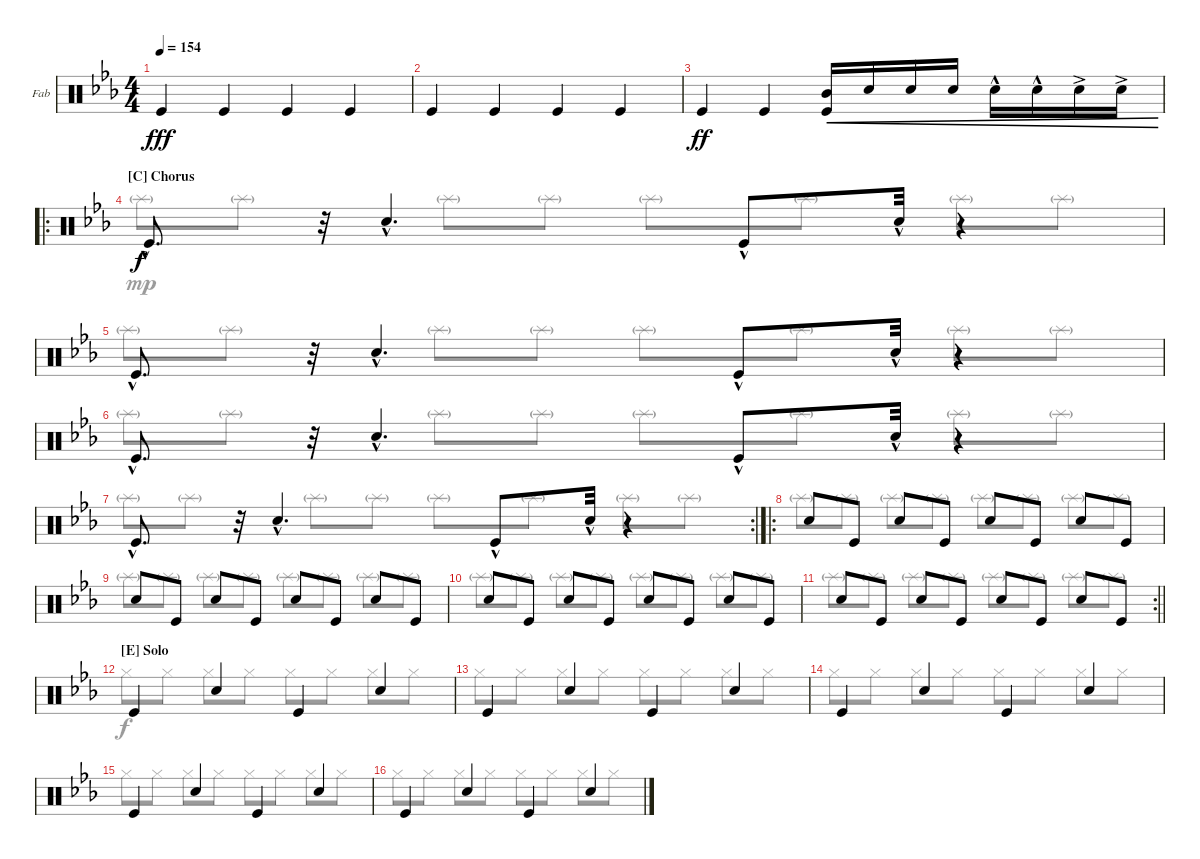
\defaultSystemsLayout 4
\bracketExtendMode groupsimilarinstruments
\firstSystemTrackNameOrientation horizontal
\otherSystemsTrackNameOrientation horizontal
\track ("Drums" "Fab") {instrument percussion}
\staff {score}
\articulation defaults
\voice
\ts (4 4)
\tempo 154
\clef neutral
\scale
0.467994
\ks eb "Kick (hit)".4{dy fff} "Kick (hit)".4 "Kick (hit)".4 "Kick (hit)".4
|
\scale
0.530682 "Kick (hit)".4 "Kick (hit)".4 "Kick (hit)".4 "Kick (hit)".4 |
\scale
0.469357 "Kick (hit)".4{dy ff} "Kick (hit)".4 ("Kick (hit)" "Mid Tom (hit)").16{cre} "Snare (hit) 2".16{cre} "Snare (hit) 2".16{cre} "Snare (hit) 2".16{cre} "Snare (hit) 2"{hac}.16{cre} "Snare (hit) 2"{hac}.16{cre} "Snare (hit) 2"{ac}.16{cre} "Snare (hit) 2"{ac}.16{cre} |
\ro
\section ("C" "Chorus")
"Kick (hit)"{hac}.8{d dy f} r.32 "Snare (hit) 2"{hac}.4{d} "Kick (hit)"{hac}.8 "Snare (hit) 2"{hac}.32 r.4 |
"Kick (hit)"{hac}.8{d} r.32 "Snare (hit) 2"{hac}.4{d} "Kick (hit)"{hac}.8 "Snare (hit) 2"{hac}.32 r.4 |
\scale
0.523051 "Kick (hit)"{hac}.8{d} r.32 "Snare (hit) 2"{hac}.4{d} "Kick (hit)"{hac}.8 "Snare (hit) 2"{hac}.32 r.4 |
\rc 2
\scale
0.47698 "Kick (hit)"{hac}.8{d} r.32 "Snare (hit) 2"{hac}.4{d} "Kick (hit)"{hac}.8 "Snare (hit) 2"{hac}.32 r.4 |
\ro "Snare (hit) 2".8 "Kick (hit)".8 "Snare (hit) 2".8 "Kick (hit)".8 "Snare (hit) 2".8 "Kick (hit)".8 "Snare (hit) 2".8 "Kick (hit)".8
|
"Snare (hit) 2".8 "Kick (hit)".8 "Snare (hit) 2".8 "Kick (hit)".8 "Snare (hit) 2".8 "Kick (hit)".8 "Snare (hit) 2".8 "Kick (hit)".8 |
\scale
0.526561 "Snare (hit) 2".8 "Kick (hit)".8 "Snare (hit) 2".8 "Kick (hit)".8 "Snare (hit) 2".8 "Kick (hit)".8 "Snare (hit) 2".8 "Kick (hit)".8 |
\rc 2
\scale
0.473424
\barLineRight lightlight "Snare (hit) 2".8 "Kick (hit)".8 "Snare (hit) 2".8 "Kick (hit)".8 "Snare (hit) 2".8 "Kick (hit)".8 "Snare (hit) 2".8 "Kick (hit)".8
|
\section ("E" "Solo")
\scale
0.566667 "Kick (hit)".4 "Snare (hit) 2".4 "Kick (hit)".4 "Snare (hit) 2".4 |
\scale
0.433347 "Kick (hit)".4 "Snare (hit) 2".4 "Kick (hit)".4 "Snare (hit) 2".4 |
\scale
0.565239 "Kick (hit)".4 "Snare (hit) 2".4 "Kick (hit)".4 "Snare (hit) 2".4 |
\scale
0.434772 "Kick (hit)".4 "Snare (hit) 2".4 "Kick (hit)".4 "Snare (hit) 2".4 |
\scale
0.566667 "Kick (hit)".4 "Snare (hit) 2".4 "Kick (hit)".4 "Snare (hit) 2".4
\voice
\clef neutral
\ottava regular
\simile none
\scale
0.467994
\ks eb
|
\scale
0.530682 |
\scale
0.469357 |
"Splash (hit)"{g}.8{dy mp} "Splash (hit)"{g}.8 "Splash (hit)"{g}.8 "Splash (hit)"{g}.8 "Splash (hit)"{g}.8 "Splash (hit)"{g}.8 "Splash (hit)"{g}.8 "Splash (hit)"{g}.8 |
"Splash (hit)"{g}.8 "Splash (hit)"{g}.8 "Splash (hit)"{g}.8 "Splash (hit)"{g}.8 "Splash (hit)"{g}.8 "Splash (hit)"{g}.8 "Splash (hit)"{g}.8 "Splash (hit)"{g}.8 |
\scale
0.523051 "Splash (hit)"{g}.8 "Splash (hit)"{g}.8 "Splash (hit)"{g}.8 "Splash (hit)"{g}.8 "Splash (hit)"{g}.8 "Splash (hit)"{g}.8 "Splash (hit)"{g}.8 "Splash (hit)"{g}.8 |
\scale
0.47698 "Splash (hit)"{g}.8 "Splash (hit)"{g}.8 "Splash (hit)"{g}.8 "Splash (hit)"{g}.8 "Splash (hit)"{g}.8 "Splash (hit)"{g}.8 "Splash (hit)"{g}.8 "Splash (hit)"{g}.8 |
"Splash (hit)"{g}.8 "Splash (hit)"{g}.8 "Splash (hit)"{g}.8 "Splash (hit)"{g}.8 "Splash (hit)"{g}.8 "Splash (hit)"{g}.8 "Splash (hit)"{g}.8 "Splash (hit)"{g}.8 |
"Splash (hit)"{g}.8 "Splash (hit)"{g}.8 "Splash (hit)"{g}.8 "Splash (hit)"{g}.8 "Splash (hit)"{g}.8 "Splash (hit)"{g}.8 "Splash (hit)"{g}.8 "Splash (hit)"{g}.8 |
\scale
0.526561 "Splash (hit)"{g}.8 "Splash (hit)"{g}.8 "Splash (hit)"{g}.8 "Splash (hit)"{g}.8 "Splash (hit)"{g}.8 "Splash (hit)"{g}.8 "Splash (hit)"{g}.8 "Splash (hit)"{g}.8 |
\scale
0.473424
\barLineRight lightlight "Splash (hit)"{g}.8 "Splash (hit)"{g}.8 "Splash (hit)"{g}.8 "Splash (hit)"{g}.8 "Splash (hit)"{g}.8 "Splash (hit)"{g}.8 "Splash (hit)"{g}.8 "Splash (hit)"{g}.8
|
\scale
0.566667 "Hi-Hat (closed)".8{dy f} "Hi-Hat (closed)".8 "Hi-Hat (closed)".8 "Hi-Hat (closed)".8 "Hi-Hat (closed)".8 "Hi-Hat (closed)".8 "Hi-Hat (closed)".8 "Hi-Hat (closed)".8 |
\scale
0.433347 "Hi-Hat (closed)".8 "Hi-Hat (closed)".8 "Hi-Hat (closed)".8 "Hi-Hat (closed)".8 "Hi-Hat (closed)".8 "Hi-Hat (closed)".8 "Hi-Hat (closed)".8 "Hi-Hat (closed)".8 |
\scale
0.565239 "Hi-Hat (closed)".8 "Hi-Hat (closed)".8 "Hi-Hat (closed)".8 "Hi-Hat (closed)".8 "Hi-Hat (closed)".8 "Hi-Hat (closed)".8 "Hi-Hat (closed)".8 "Hi-Hat (closed)".8 |
\scale
0.434772 "Hi-Hat (closed)".8 "Hi-Hat (closed)".8 "Hi-Hat (closed)".8 "Hi-Hat (closed)".8 "Hi-Hat (closed)".8 "Hi-Hat (closed)".8 "Hi-Hat (closed)".8 "Hi-Hat (closed)".8 |
\scale
0.566667 "Hi-Hat (closed)".8 "Hi-Hat (closed)".8 "Hi-Hat (closed)".8 "Hi-Hat (closed)".8 "Hi-Hat (closed)".8 "Hi-Hat (closed)".8 "Hi-Hat (closed)".8 "Hi-Hat (closed)".8
